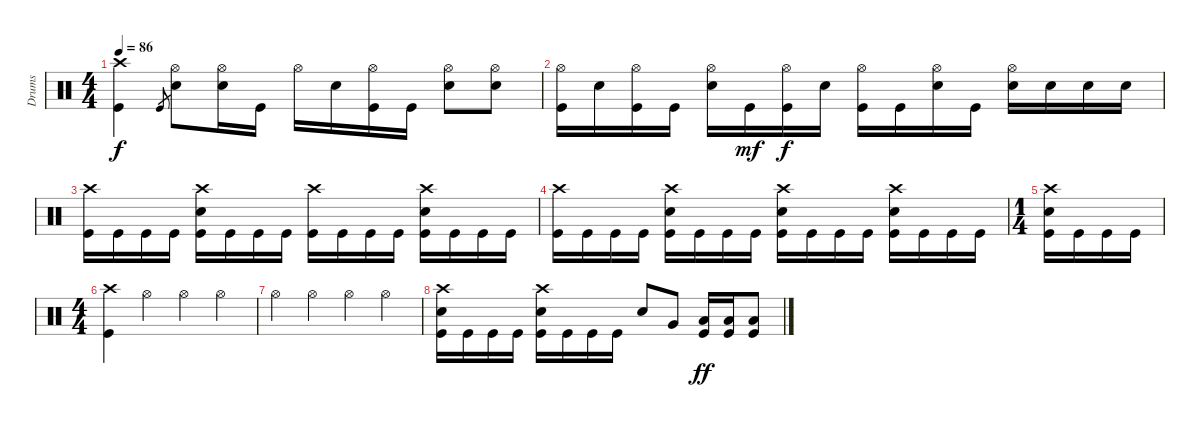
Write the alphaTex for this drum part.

\track ("Drums" "Drums") {instrument percussion}
\staff {score}
\articulation defaults
\ts (4 4)
\tempo 86
\clef neutral
\ks c
("Crash high (hit)" "Kick (hit)").4{dy f} "Kick (hit)".8{gr} ("Hi-Hat (open)" "Snare (hit) 2").8 ("Hi-Hat (open)" "Snare (hit) 2").16 "Kick (hit)".16 "Hi-Hat (open)".16 "Snare (hit) 2".16 ("Hi-Hat (open)" "Kick (hit)").16 "Kick (hit)".16 ("Hi-Hat (open)" "Snare (hit) 2").8 ("Hi-Hat (open)" "Snare (hit) 2").8 |
("Hi-Hat (open)" "Kick (hit)").16 "Snare (hit) 2".16 ("Hi-Hat (open)" "Kick (hit)").16 "Kick (hit)".16 ("Hi-Hat (open)" "Snare (hit) 2").16 "Kick (hit)".16{dy mf} ("Hi-Hat (open)" "Kick (hit)").16{dy f} "Snare (hit) 2".16 ("Hi-Hat (open)" "Kick (hit)").16 "Kick (hit)".16 ("Hi-Hat (open)" "Snare (hit) 2").16 "Kick (hit)".16 ("Hi-Hat (open)" "Snare (hit) 2").16 "Snare (hit) 2".16 "Snare (hit) 2".16 "Snare (hit) 2".16 |
("Crash high (hit)" "Kick (hit)").16 "Kick (hit)".16 "Kick (hit)".16 "Kick (hit)".16 ("Crash high (hit)" "Snare (hit) 2" "Kick (hit)").16 "Kick (hit)".16 "Kick (hit)".16 "Kick (hit)".16 ("Crash high (hit)" "Kick (hit)").16 "Kick (hit)".16 "Kick (hit)".16 "Kick (hit)".16 ("Crash high (hit)" "Snare (hit) 2" "Kick (hit)").16 "Kick (hit)".16 "Kick (hit)".16 "Kick (hit)".16 |
("Crash high (hit)" "Kick (hit)").16 "Kick (hit)".16 "Kick (hit)".16 "Kick (hit)".16 ("Crash high (hit)" "Snare (hit) 2" "Kick (hit)").16 "Kick (hit)".16 "Kick (hit)".16 "Kick (hit)".16 ("Crash high (hit)" "Snare (hit) 2" "Kick (hit)").16 "Kick (hit)".16 "Kick (hit)".16 "Kick (hit)".16 ("Crash high (hit)" "Snare (hit) 2" "Kick (hit)").16 "Kick (hit)".16 "Kick (hit)".16 "Kick (hit)".16 |
\ts (1 4)
("Crash high (hit)" "Snare (hit) 2" "Kick (hit)").16 "Kick (hit)".16 "Kick (hit)".16 "Kick (hit)".16 |
\ts (4 4)
("Crash high (hit)" "Kick (hit)").4 "Hi-Hat (open)".4 "Hi-Hat (open)".4 "Hi-Hat (open)".4 |
"Hi-Hat (open)".4 "Hi-Hat (open)".4 "Hi-Hat (open)".4 "Hi-Hat (open)".4 |
("Crash high (hit)" "Snare (hit) 2" "Kick (hit)").16 "Kick (hit)".16 "Kick (hit)".16 "Kick (hit)".16 ("Crash high (hit)" "Snare (hit) 2" "Kick (hit)").16 "Kick (hit)".16 "Kick (hit)".16 "Kick (hit)".16 "Snare (hit) 2".8 "Very Low Tom (hit)".8 ("Low Floor Tom (hit)" "Kick (hit)").16{dy ff} ("Low Floor Tom (hit)" "Kick (hit)").16 ("Low Floor Tom (hit)" "Kick (hit)").8
